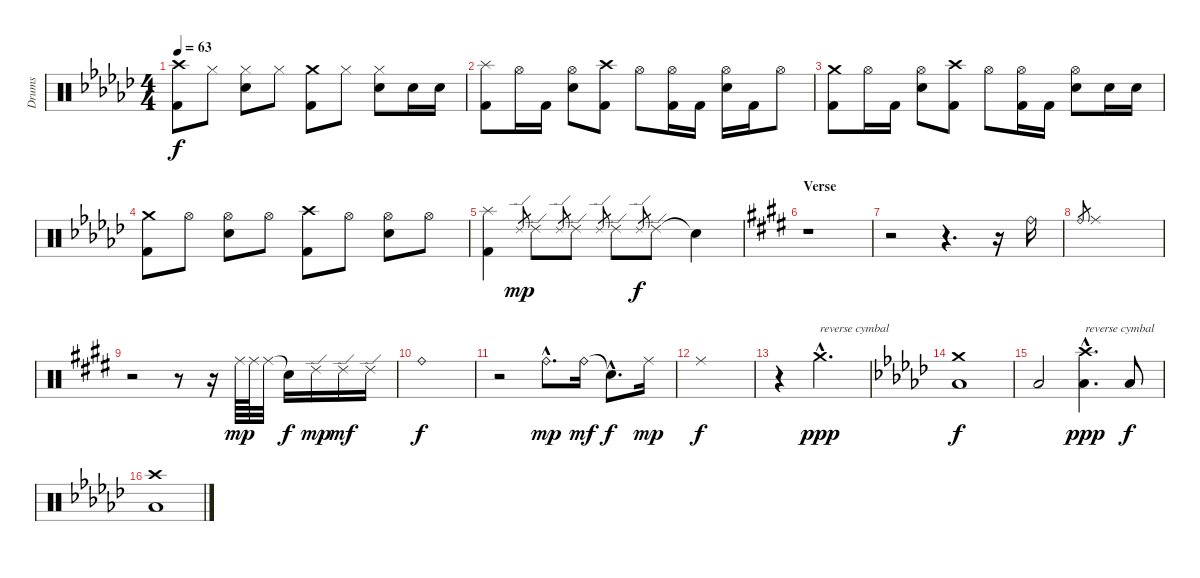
\track ("Drums" "Drums") {instrument percussion}
\staff {score}
\articulation defaults
\ts (4 4)
\tempo 63
\clef neutral
\ks ebminor
("Crash high (hit)" "Kick (hit) 2").8{dy f} "Hi-Hat (closed)".8 ("Hi-Hat (closed)" "Snare (hit) 2").8 "Hi-Hat (closed)".8 ("Crash medium (hit)" "Kick (hit) 2").8 "Hi-Hat (closed)".8 ("Hi-Hat (closed)" "Snare (hit) 2").8 "Snare (hit) 2".16 "Snare (hit) 2".16 |
("Splash (hit)" "Kick (hit) 2").8 "Hi-Hat (open)".16 "Kick (hit) 2".16 ("Hi-Hat (open)" "Snare (hit) 2").8 ("Crash high (hit)" "Kick (hit) 2").8 "Hi-Hat (open)".8 ("Hi-Hat (open)" "Kick (hit) 2").16 "Kick (hit) 2".16 ("Hi-Hat (open)" "Snare (hit) 2").16 "Kick (hit) 2".16 "Hi-Hat (open)".8 |
("Crash medium (hit)" "Kick (hit) 2").8 "Hi-Hat (open)".16 "Kick (hit) 2".16 ("Hi-Hat (open)" "Snare (hit) 2").8 ("Crash high (hit)" "Kick (hit) 2").8 "Hi-Hat (open)".8 ("Hi-Hat (open)" "Kick (hit) 2").16 "Kick (hit) 2".16 ("Hi-Hat (open)" "Snare (hit) 2").8 "Snare (hit) 2".16 "Snare (hit) 2".16 |
("Crash medium (hit)" "Kick (hit) 2").8 "Hi-Hat (open)".8 ("Hi-Hat (open)" "Snare (hit) 2").8 "Hi-Hat (open)".8 ("Crash high (hit)" "Kick (hit) 2").8 "Hi-Hat (open)".8 ("Hi-Hat (open)" "Snare (hit) 2").8 "Hi-Hat (open)".8 |
("Splash (hit)" "Kick (hit) 2").4 "Ride (edge) 2".8{gr dy mp} "Ride (edge) 2".8 "Ride (edge) 2".8{gr} "Ride (edge) 2".8 "Ride (edge) 2".8{gr} "Ride (edge) 2".8 "Ride (edge) 2".8{gr dy f} "Ride (edge) 2".8 "Snare (hit)"{t}.4 |
\section ("" "Verse")
\ks c#minor
r.1 |
r.2 r.4{d} r.16 "Ride (bell)".16 |
"Ride (bell)".8{gr} "Ride (middle)".1 |
r.2 r.8 r.16 "Ride (middle)".64{dy mp} "Ride (middle)".64 "Ride (middle)".32 "Snare (hit)"{t}.16{dy f} "Ride (edge) 2".16{dy mp} "Ride (edge) 2".16{dy mf} "Ride (edge) 2".16 |
"Ride (bell)".1{dy f} |
r.2 "Ride (bell)"{hac}.8{d dy mp} "Ride (bell)".16{dy mf} "Snare (hit)"{hac t}.8{d dy f} "Ride (middle)".16{dy mp} |
"Ride (middle)".1{dy f} |
r.4 "Crash medium (hit)"{hac}.2{d txt "reverse cymbal" dy ppp} |
\ks ebminor
("Crash medium (hit)" "Low Floor Tom (hit)").1{dy f} |
"Low Floor Tom (hit)".2 ("Crash high (hit)"{hac} "Low Floor Tom (hit)"{hac}).4{d txt "reverse cymbal" dy ppp} "Low Floor Tom (hit)".8{dy f} |
("Crash high (hit)" "Low Floor Tom (hit)").1
